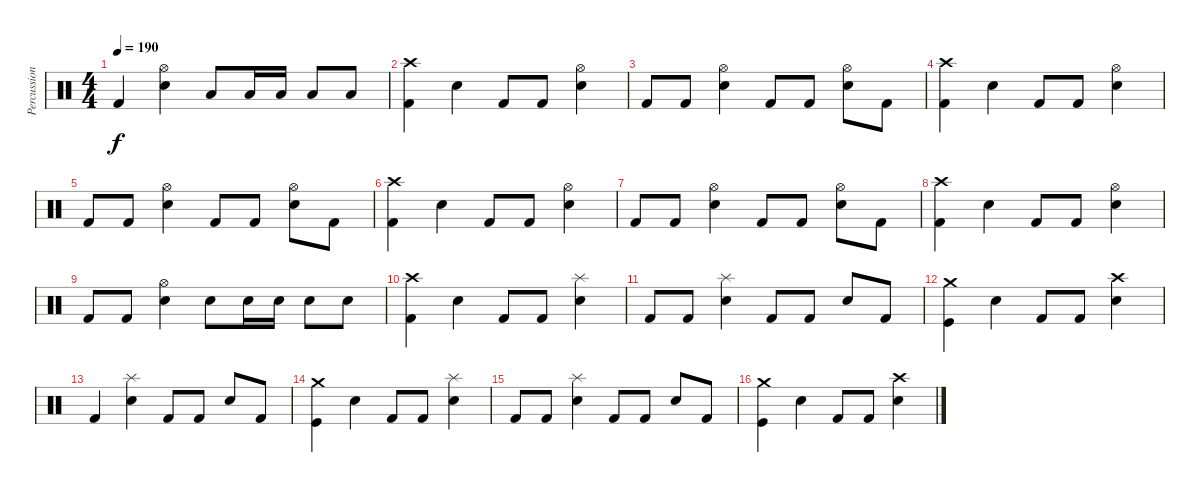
\track ("Percussions" "Percussion") {instrument percussion}
\staff {score}
\articulation defaults
\ts (4 4)
\tempo 190
\clef neutral
\ks c "Kick (hit) 2".4{dy f}
("Hi-Hat (open)" "Snare (hit) 2").4 "Low Tom (hit)".8 "Low Tom (hit)".16 "Low Tom (hit)".16 "Low Tom (hit)".8 "Low Tom (hit)".8 |
("Crash high (hit)" "Kick (hit) 2").4 "Snare (hit) 2".4 "Kick (hit) 2".8 "Kick (hit) 2".8 ("Hi-Hat (open)" "Snare (hit) 2").4 |
"Kick (hit) 2".8 "Kick (hit) 2".8 ("Hi-Hat (open)" "Snare (hit) 2").4 "Kick (hit) 2".8 "Kick (hit) 2".8 ("Hi-Hat (open)" "Snare (hit) 2").8 "Kick (hit) 2".8 |
("Crash high (hit)" "Kick (hit) 2").4 "Snare (hit) 2".4 "Kick (hit) 2".8 "Kick (hit) 2".8 ("Hi-Hat (open)" "Snare (hit) 2").4 |
"Kick (hit) 2".8 "Kick (hit) 2".8 ("Hi-Hat (open)" "Snare (hit) 2").4 "Kick (hit) 2".8 "Kick (hit) 2".8 ("Hi-Hat (open)" "Snare (hit) 2").8 "Kick (hit) 2".8 |
("Crash high (hit)" "Kick (hit) 2").4 "Snare (hit) 2".4 "Kick (hit) 2".8 "Kick (hit) 2".8 ("Hi-Hat (open)" "Snare (hit) 2").4 |
"Kick (hit) 2".8 "Kick (hit) 2".8 ("Hi-Hat (open)" "Snare (hit) 2").4 "Kick (hit) 2".8 "Kick (hit) 2".8 ("Hi-Hat (open)" "Snare (hit) 2").8 "Kick (hit) 2".8 |
("Crash high (hit)" "Kick (hit) 2").4 "Snare (hit) 2".4 "Kick (hit) 2".8 "Kick (hit) 2".8 ("Hi-Hat (open)" "Snare (hit) 2").4 |
"Kick (hit) 2".8 "Kick (hit) 2".8 ("Hi-Hat (open)" "Snare (hit) 2").4 "Electric Snare (hit)".8 "Electric Snare (hit)".16 "Electric Snare (hit)".16 "Electric Snare (hit)".8 "Electric Snare (hit)".8 |
("Crash high (hit)" "Kick (hit) 2").4 "Snare (hit) 2".4 "Kick (hit) 2".8 "Kick (hit) 2".8 ("Splash (hit)" "Snare (hit) 2").4 |
"Kick (hit) 2".8 "Kick (hit) 2".8 ("Splash (hit)" "Snare (hit) 2").4 "Kick (hit) 2".8 "Kick (hit) 2".8 "Snare (hit) 2".8 "Kick (hit) 2".8 |
("Crash medium (hit)" "Kick (hit)").4 "Snare (hit) 2".4 "Kick (hit) 2".8 "Kick (hit) 2".8 ("Crash high (hit)" "Snare (hit) 2").4 |
"Kick (hit) 2".4 ("Splash (hit)" "Snare (hit) 2").4 "Kick (hit) 2".8 "Kick (hit) 2".8 "Snare (hit) 2".8 "Kick (hit) 2".8 |
("Crash medium (hit)" "Kick (hit)").4 "Snare (hit) 2".4 "Kick (hit) 2".8 "Kick (hit) 2".8 ("Splash (hit)" "Snare (hit) 2").4 |
"Kick (hit) 2".8 "Kick (hit) 2".8 ("Splash (hit)" "Snare (hit) 2").4 "Kick (hit) 2".8 "Kick (hit) 2".8 "Snare (hit) 2".8 "Kick (hit) 2".8 |
("Crash medium (hit)" "Kick (hit)").4 "Snare (hit) 2".4 "Kick (hit) 2".8 "Kick (hit) 2".8 ("Crash high (hit)" "Snare (hit) 2").4
